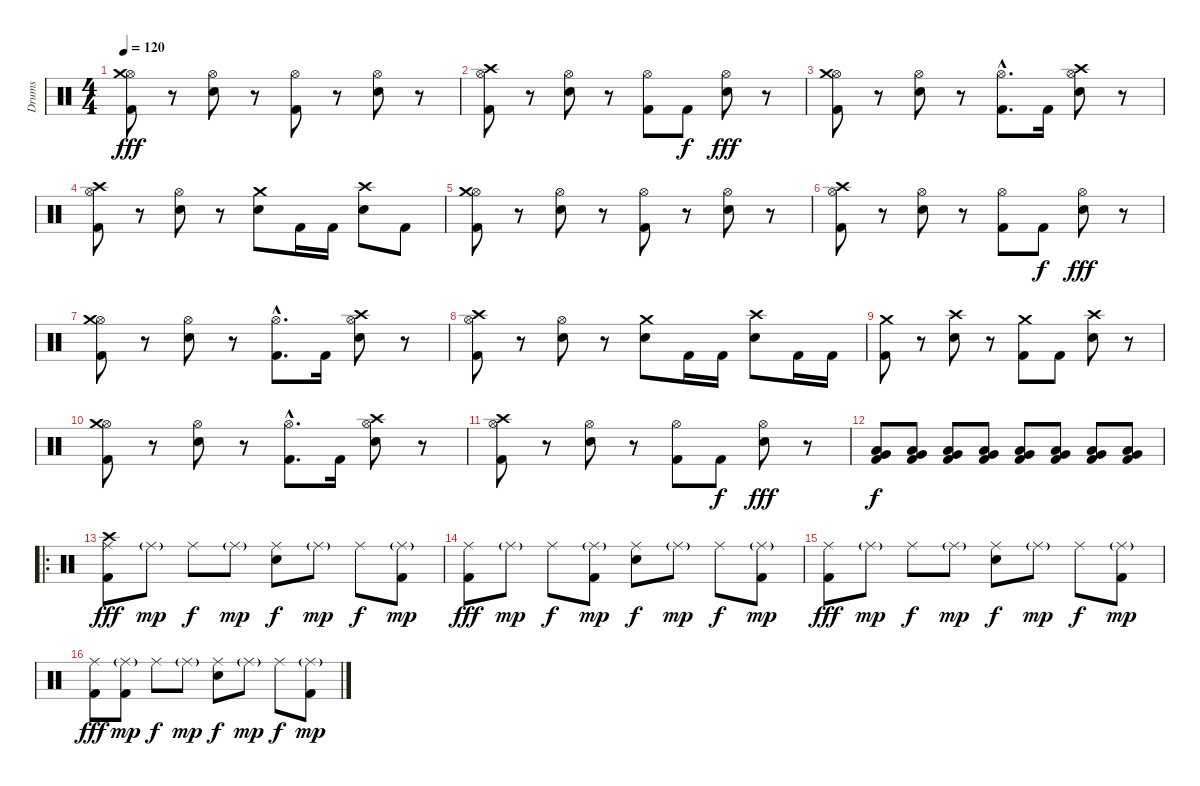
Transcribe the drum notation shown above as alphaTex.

\track ("Drums" "Drums") {instrument percussion}
\staff {score}
\articulation defaults
\ts (4 4)
\tempo 120
\clef neutral
\ks c
("Hi-Hat (open)" "Crash medium (hit)" "Kick (hit) 2").8{dy fff} r.8 ("Hi-Hat (open)" "Electric Snare (hit)").8 r.8 ("Hi-Hat (open)" "Kick (hit) 2").8 r.8 ("Hi-Hat (open)" "Electric Snare (hit)").8 r.8 |
("Hi-Hat (open)" "Crash high (hit)" "Kick (hit) 2").8 r.8 ("Hi-Hat (open)" "Electric Snare (hit)").8 r.8 ("Hi-Hat (open)" "Kick (hit) 2").8 "Kick (hit) 2".8{dy f} ("Hi-Hat (open)" "Electric Snare (hit)").8{dy fff} r.8 |
("Hi-Hat (open)" "Crash medium (hit)" "Kick (hit) 2").8 r.8 ("Hi-Hat (open)" "Electric Snare (hit)").8 r.8 ("Hi-Hat (open)"{hac} "Kick (hit) 2"{hac}).8{d} "Kick (hit) 2".16 ("Hi-Hat (open)" "Crash high (hit)" "Electric Snare (hit)").8 r.8 |
("Hi-Hat (open)" "Crash high (hit)" "Kick (hit) 2").8 r.8 ("Hi-Hat (open)" "Electric Snare (hit)").8 r.8 ("Crash medium (hit)" "Electric Snare (hit)").8 "Kick (hit) 2".16 "Kick (hit) 2".16 ("Crash high (hit)" "Electric Snare (hit)").8 "Kick (hit) 2".8 |
("Hi-Hat (open)" "Crash medium (hit)" "Kick (hit) 2").8 r.8 ("Hi-Hat (open)" "Electric Snare (hit)").8 r.8 ("Hi-Hat (open)" "Kick (hit) 2").8 r.8 ("Hi-Hat (open)" "Electric Snare (hit)").8 r.8 |
("Hi-Hat (open)" "Crash high (hit)" "Kick (hit) 2").8 r.8 ("Hi-Hat (open)" "Electric Snare (hit)").8 r.8 ("Hi-Hat (open)" "Kick (hit) 2").8 "Kick (hit) 2".8{dy f} ("Hi-Hat (open)" "Electric Snare (hit)").8{dy fff} r.8 |
("Hi-Hat (open)" "Crash medium (hit)" "Kick (hit) 2").8 r.8 ("Hi-Hat (open)" "Electric Snare (hit)").8 r.8 ("Hi-Hat (open)"{hac} "Kick (hit) 2"{hac}).8{d} "Kick (hit) 2".16 ("Hi-Hat (open)" "Crash high (hit)" "Electric Snare (hit)").8 r.8 |
("Hi-Hat (open)" "Crash high (hit)" "Kick (hit) 2").8 r.8 ("Hi-Hat (open)" "Electric Snare (hit)").8 r.8 ("Crash medium (hit)" "Electric Snare (hit)").8 "Kick (hit) 2".16 "Kick (hit) 2".16 ("Crash high (hit)" "Electric Snare (hit)").8 "Kick (hit) 2".16 "Kick (hit) 2".16 |
("Crash medium (hit)" "Kick (hit) 2").8 r.8 ("Crash high (hit)" "Electric Snare (hit)").8 r.8 ("Crash medium (hit)" "Kick (hit) 2").8 "Kick (hit) 2".8 ("Crash high (hit)" "Electric Snare (hit)").8 r.8 |
("Hi-Hat (open)" "Crash medium (hit)" "Kick (hit) 2").8 r.8 ("Hi-Hat (open)" "Electric Snare (hit)").8 r.8 ("Hi-Hat (open)"{hac} "Kick (hit) 2"{hac}).8{d} "Kick (hit) 2".16 ("Hi-Hat (open)" "Crash high (hit)" "Electric Snare (hit)").8 r.8 |
("Hi-Hat (open)" "Crash high (hit)" "Kick (hit) 2").8 r.8 ("Hi-Hat (open)" "Electric Snare (hit)").8 r.8 ("Hi-Hat (open)" "Kick (hit) 2").8 "Kick (hit) 2".8{dy f} ("Hi-Hat (open)" "Electric Snare (hit)").8{dy fff} r.8 |
("Low Floor Tom (hit)" "Very Low Tom (hit)" "Kick (hit) 2").8{dy f} ("Low Floor Tom (hit)" "Very Low Tom (hit)" "Kick (hit) 2").8 ("Low Floor Tom (hit)" "Very Low Tom (hit)" "Kick (hit) 2").8 ("Low Floor Tom (hit)" "Very Low Tom (hit)" "Kick (hit) 2").8 ("Low Floor Tom (hit)" "Very Low Tom (hit)" "Kick (hit) 2").8 ("Low Floor Tom (hit)" "Very Low Tom (hit)" "Kick (hit) 2").8 ("Low Floor Tom (hit)" "Very Low Tom (hit)" "Kick (hit) 2").8 ("Low Floor Tom (hit)" "Very Low Tom (hit)" "Kick (hit) 2").8 |
\ro
("Ride (middle)" "Crash high (hit)" "Kick (hit) 2").8{dy fff} "Ride (middle)"{g}.8{dy mp} "Ride (middle)".8{dy f} "Ride (middle)"{g}.8{dy mp} ("Ride (middle)" "Electric Snare (hit)").8{dy f} "Ride (middle)"{g}.8{dy mp} "Ride (middle)".8{dy f} ("Ride (middle)"{g} "Kick (hit) 2").8{dy mp} |
("Ride (middle)" "Kick (hit) 2").8{dy fff} "Ride (middle)"{g}.8{dy mp} "Ride (middle)".8{dy f} ("Ride (middle)"{g} "Kick (hit) 2").8{dy mp} ("Ride (middle)" "Electric Snare (hit)").8{dy f} "Ride (middle)"{g}.8{dy mp} "Ride (middle)".8{dy f} ("Ride (middle)"{g} "Kick (hit) 2").8{dy mp} |
("Ride (middle)" "Kick (hit) 2").8{dy fff} "Ride (middle)"{g}.8{dy mp} "Ride (middle)".8{dy f} "Ride (middle)"{g}.8{dy mp} ("Ride (middle)" "Electric Snare (hit)").8{dy f} "Ride (middle)"{g}.8{dy mp} "Ride (middle)".8{dy f} ("Ride (middle)"{g} "Kick (hit) 2").8{dy mp} |
("Ride (middle)" "Kick (hit) 2").8{dy fff} ("Ride (middle)"{g} "Kick (hit) 2").8{dy mp} "Ride (middle)".8{dy f} "Ride (middle)"{g}.8{dy mp} ("Ride (middle)" "Electric Snare (hit)").8{dy f} "Ride (middle)"{g}.8{dy mp} "Ride (middle)".8{dy f} ("Ride (middle)"{g} "Kick (hit) 2").8{dy mp}
